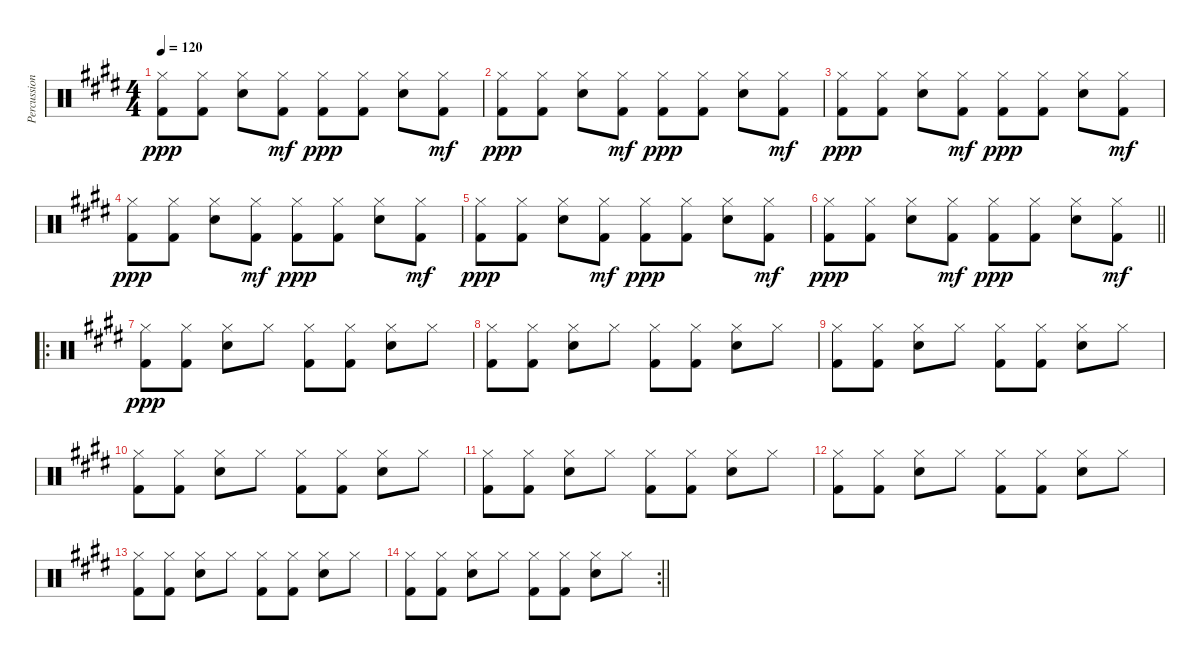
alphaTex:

\track ("Percussion" "Percussion") {solo instrument percussion}
\staff {score}
\articulation defaults
\ts (4 4)
\tempo 120
\clef neutral
\ks e
("Hi-Hat (closed)" "Kick (hit) 2").8{dy ppp} ("Hi-Hat (closed)" "Kick (hit) 2").8 ("Hi-Hat (closed)" "Snare (hit) 2").8 ("Hi-Hat (closed)" "Kick (hit) 2").8{dy mf} ("Hi-Hat (closed)" "Kick (hit) 2").8{dy ppp} ("Hi-Hat (closed)" "Kick (hit) 2").8 ("Hi-Hat (closed)" "Snare (hit) 2").8 ("Hi-Hat (closed)" "Kick (hit) 2").8{dy mf} |
("Hi-Hat (closed)" "Kick (hit) 2").8{dy ppp} ("Hi-Hat (closed)" "Kick (hit) 2").8 ("Hi-Hat (closed)" "Snare (hit) 2").8 ("Hi-Hat (closed)" "Kick (hit) 2").8{dy mf} ("Hi-Hat (closed)" "Kick (hit) 2").8{dy ppp} ("Hi-Hat (closed)" "Kick (hit) 2").8 ("Hi-Hat (closed)" "Snare (hit) 2").8 ("Hi-Hat (closed)" "Kick (hit) 2").8{dy mf} |
("Hi-Hat (closed)" "Kick (hit) 2").8{dy ppp} ("Hi-Hat (closed)" "Kick (hit) 2").8 ("Hi-Hat (closed)" "Snare (hit) 2").8 ("Hi-Hat (closed)" "Kick (hit) 2").8{dy mf} ("Hi-Hat (closed)" "Kick (hit) 2").8{dy ppp} ("Hi-Hat (closed)" "Kick (hit) 2").8 ("Hi-Hat (closed)" "Snare (hit) 2").8 ("Hi-Hat (closed)" "Kick (hit) 2").8{dy mf} |
("Hi-Hat (closed)" "Kick (hit) 2").8{dy ppp} ("Hi-Hat (closed)" "Kick (hit) 2").8 ("Hi-Hat (closed)" "Snare (hit) 2").8 ("Hi-Hat (closed)" "Kick (hit) 2").8{dy mf} ("Hi-Hat (closed)" "Kick (hit) 2").8{dy ppp} ("Hi-Hat (closed)" "Kick (hit) 2").8 ("Hi-Hat (closed)" "Snare (hit) 2").8 ("Hi-Hat (closed)" "Kick (hit) 2").8{dy mf} |
("Hi-Hat (closed)" "Kick (hit) 2").8{dy ppp} ("Hi-Hat (closed)" "Kick (hit) 2").8 ("Hi-Hat (closed)" "Snare (hit) 2").8 ("Hi-Hat (closed)" "Kick (hit) 2").8{dy mf} ("Hi-Hat (closed)" "Kick (hit) 2").8{dy ppp} ("Hi-Hat (closed)" "Kick (hit) 2").8 ("Hi-Hat (closed)" "Snare (hit) 2").8 ("Hi-Hat (closed)" "Kick (hit) 2").8{dy mf} |
\barLineRight lightlight
("Hi-Hat (closed)" "Kick (hit) 2").8{dy ppp} ("Hi-Hat (closed)" "Kick (hit) 2").8 ("Hi-Hat (closed)" "Snare (hit) 2").8 ("Hi-Hat (closed)" "Kick (hit) 2").8{dy mf} ("Hi-Hat (closed)" "Kick (hit) 2").8{dy ppp} ("Hi-Hat (closed)" "Kick (hit) 2").8 ("Hi-Hat (closed)" "Snare (hit) 2").8 ("Hi-Hat (closed)" "Kick (hit) 2").8{dy mf} |
\ro
("Hi-Hat (closed)" "Kick (hit) 2").8{dy ppp} ("Hi-Hat (closed)" "Kick (hit) 2").8 ("Hi-Hat (closed)" "Snare (hit) 2").8 "Hi-Hat (closed)".8 ("Hi-Hat (closed)" "Kick (hit) 2").8 ("Hi-Hat (closed)" "Kick (hit) 2").8 ("Hi-Hat (closed)" "Snare (hit) 2").8 "Hi-Hat (closed)".8 |
("Hi-Hat (closed)" "Kick (hit) 2").8 ("Hi-Hat (closed)" "Kick (hit) 2").8 ("Hi-Hat (closed)" "Snare (hit) 2").8 "Hi-Hat (closed)".8 ("Hi-Hat (closed)" "Kick (hit) 2").8 ("Hi-Hat (closed)" "Kick (hit) 2").8 ("Hi-Hat (closed)" "Snare (hit) 2").8 "Hi-Hat (closed)".8 |
("Hi-Hat (closed)" "Kick (hit) 2").8 ("Hi-Hat (closed)" "Kick (hit) 2").8 ("Hi-Hat (closed)" "Snare (hit) 2").8 "Hi-Hat (closed)".8 ("Hi-Hat (closed)" "Kick (hit) 2").8 ("Hi-Hat (closed)" "Kick (hit) 2").8 ("Hi-Hat (closed)" "Snare (hit) 2").8 "Hi-Hat (closed)".8 |
("Hi-Hat (closed)" "Kick (hit) 2").8 ("Hi-Hat (closed)" "Kick (hit) 2").8 ("Hi-Hat (closed)" "Snare (hit) 2").8 "Hi-Hat (closed)".8 ("Hi-Hat (closed)" "Kick (hit) 2").8 ("Hi-Hat (closed)" "Kick (hit) 2").8 ("Hi-Hat (closed)" "Snare (hit) 2").8 "Hi-Hat (closed)".8 |
("Hi-Hat (closed)" "Kick (hit) 2").8 ("Hi-Hat (closed)" "Kick (hit) 2").8 ("Hi-Hat (closed)" "Snare (hit) 2").8 "Hi-Hat (closed)".8 ("Hi-Hat (closed)" "Kick (hit) 2").8 ("Hi-Hat (closed)" "Kick (hit) 2").8 ("Hi-Hat (closed)" "Snare (hit) 2").8 "Hi-Hat (closed)".8 |
("Hi-Hat (closed)" "Kick (hit) 2").8 ("Hi-Hat (closed)" "Kick (hit) 2").8 ("Hi-Hat (closed)" "Snare (hit) 2").8 "Hi-Hat (closed)".8 ("Hi-Hat (closed)" "Kick (hit) 2").8 ("Hi-Hat (closed)" "Kick (hit) 2").8 ("Hi-Hat (closed)" "Snare (hit) 2").8 "Hi-Hat (closed)".8 |
("Hi-Hat (closed)" "Kick (hit) 2").8 ("Hi-Hat (closed)" "Kick (hit) 2").8 ("Hi-Hat (closed)" "Snare (hit) 2").8 "Hi-Hat (closed)".8 ("Hi-Hat (closed)" "Kick (hit) 2").8 ("Hi-Hat (closed)" "Kick (hit) 2").8 ("Hi-Hat (closed)" "Snare (hit) 2").8 "Hi-Hat (closed)".8 |
\rc 2
\barLineRight lightlight
("Hi-Hat (closed)" "Kick (hit) 2").8 ("Hi-Hat (closed)" "Kick (hit) 2").8 ("Hi-Hat (closed)" "Snare (hit) 2").8 "Hi-Hat (closed)".8 ("Hi-Hat (closed)" "Kick (hit) 2").8 ("Hi-Hat (closed)" "Kick (hit) 2").8 ("Hi-Hat (closed)" "Snare (hit) 2").8 "Hi-Hat (closed)".8
